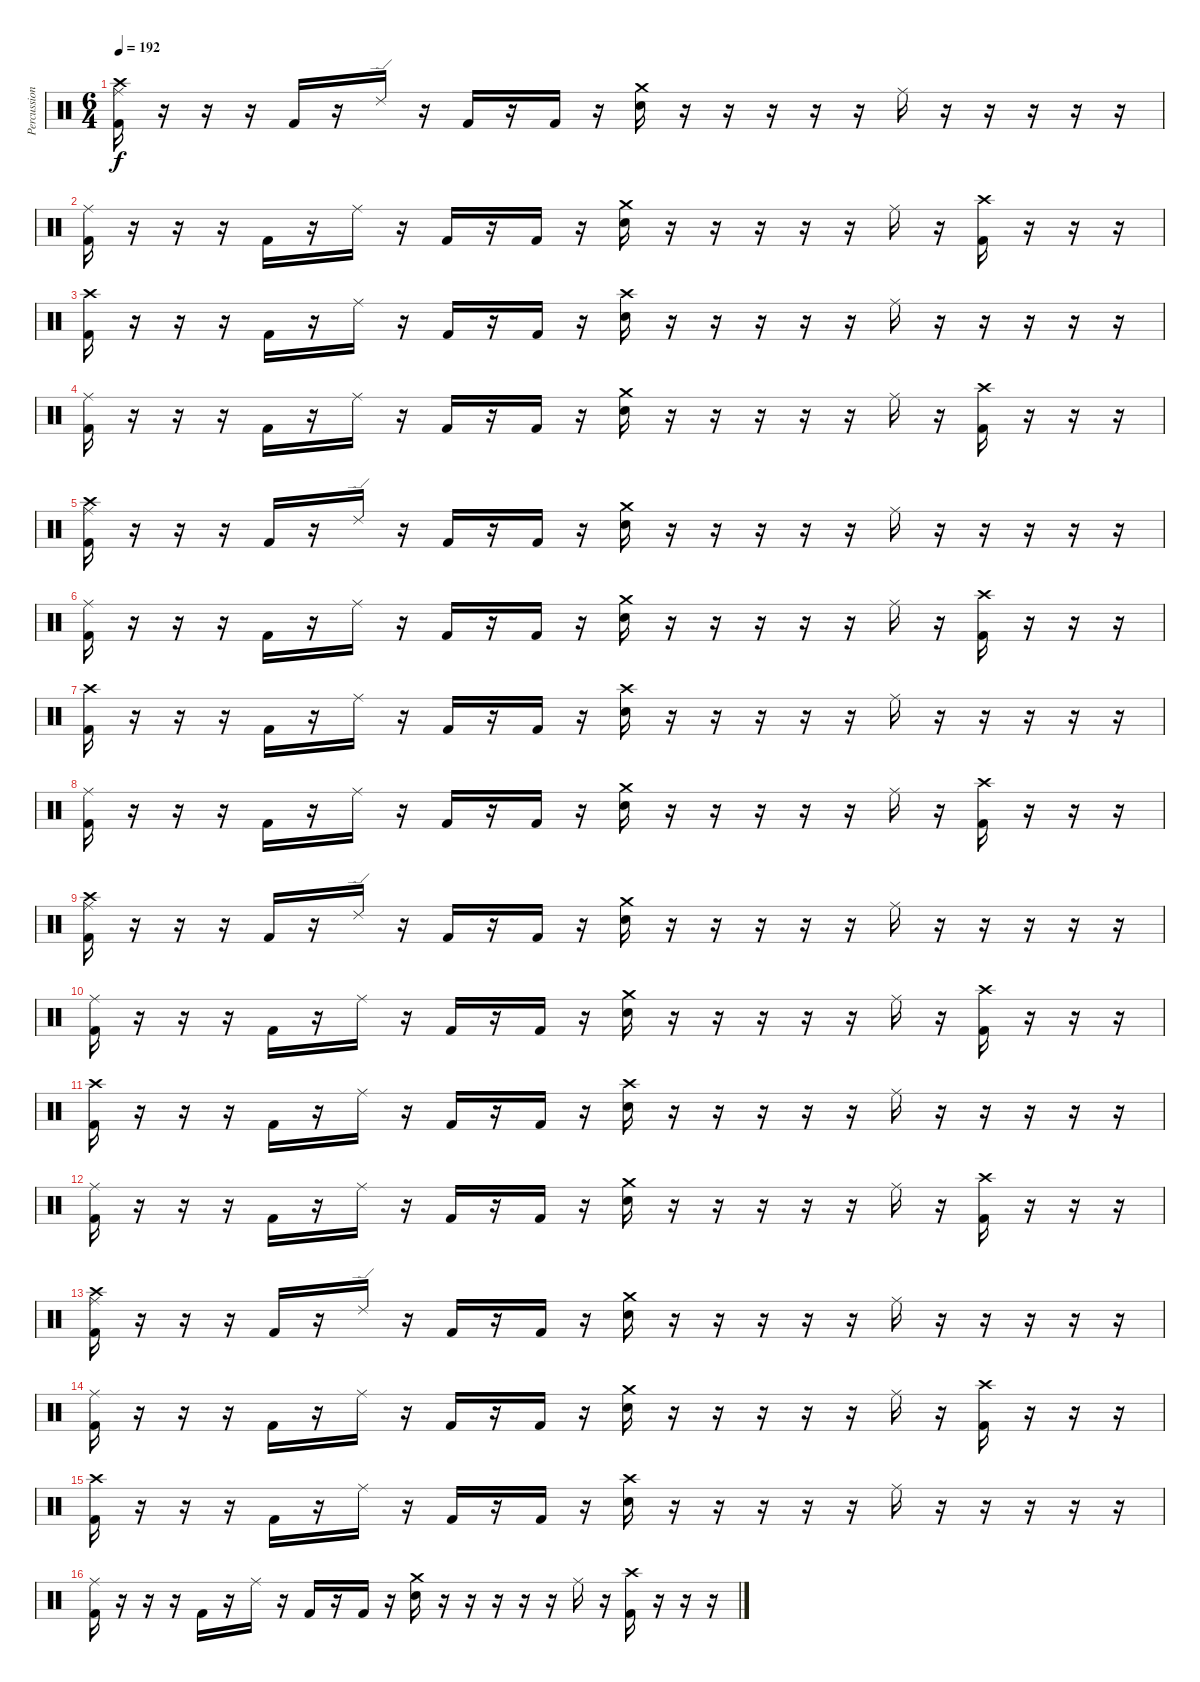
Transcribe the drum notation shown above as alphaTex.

\track ("Percussion" "Percussion") {instrument percussion}
\staff {score}
\articulation defaults
\ts (6 4)
\tempo 192
\clef neutral
\ks c
("Crash high (hit)" "Ride (middle)" "Kick (hit) 2").16{dy f} r.16 r.16 r.16 "Kick (hit) 2".16 r.16 "Ride (edge) 2".16 r.16 "Kick (hit) 2".16 r.16 "Kick (hit) 2".16 r.16 ("Crash medium (hit)" "Snare (hit) 2").16 r.16 r.16 r.16 r.16 r.16 "Ride (middle)".16 r.16 r.16 r.16 r.16 r.16 |
("Ride (middle)" "Kick (hit) 2").16 r.16 r.16 r.16 "Kick (hit) 2".16 r.16 "Ride (middle)".16 r.16 "Kick (hit) 2".16 r.16 "Kick (hit) 2".16 r.16 ("Crash medium (hit)" "Snare (hit) 2").16 r.16 r.16 r.16 r.16 r.16 "Ride (middle)".16 r.16 ("Crash high (hit)" "Kick (hit) 2").16 r.16 r.16 r.16 |
("Crash high (hit)" "Kick (hit) 2").16 r.16 r.16 r.16 "Kick (hit) 2".16 r.16 "Ride (middle)".16 r.16 "Kick (hit) 2".16 r.16 "Kick (hit) 2".16 r.16 ("Crash high (hit)" "Snare (hit) 2").16 r.16 r.16 r.16 r.16 r.16 "Ride (middle)".16 r.16 r.16 r.16 r.16 r.16 |
("Ride (middle)" "Kick (hit) 2").16 r.16 r.16 r.16 "Kick (hit) 2".16 r.16 "Ride (middle)".16 r.16 "Kick (hit) 2".16 r.16 "Kick (hit) 2".16 r.16 ("Crash medium (hit)" "Snare (hit) 2").16 r.16 r.16 r.16 r.16 r.16 "Ride (middle)".16 r.16 ("Crash high (hit)" "Kick (hit) 2").16 r.16 r.16 r.16 |
("Crash high (hit)" "Ride (middle)" "Kick (hit) 2").16 r.16 r.16 r.16 "Kick (hit) 2".16 r.16 "Ride (edge) 2".16 r.16 "Kick (hit) 2".16 r.16 "Kick (hit) 2".16 r.16 ("Crash medium (hit)" "Snare (hit) 2").16 r.16 r.16 r.16 r.16 r.16 "Ride (middle)".16 r.16 r.16 r.16 r.16 r.16 |
("Ride (middle)" "Kick (hit) 2").16 r.16 r.16 r.16 "Kick (hit) 2".16 r.16 "Ride (middle)".16 r.16 "Kick (hit) 2".16 r.16 "Kick (hit) 2".16 r.16 ("Crash medium (hit)" "Snare (hit) 2").16 r.16 r.16 r.16 r.16 r.16 "Ride (middle)".16 r.16 ("Crash high (hit)" "Kick (hit) 2").16 r.16 r.16 r.16 |
("Crash high (hit)" "Kick (hit) 2").16 r.16 r.16 r.16 "Kick (hit) 2".16 r.16 "Ride (middle)".16 r.16 "Kick (hit) 2".16 r.16 "Kick (hit) 2".16 r.16 ("Crash high (hit)" "Snare (hit) 2").16 r.16 r.16 r.16 r.16 r.16 "Ride (middle)".16 r.16 r.16 r.16 r.16 r.16 |
("Ride (middle)" "Kick (hit) 2").16 r.16 r.16 r.16 "Kick (hit) 2".16 r.16 "Ride (middle)".16 r.16 "Kick (hit) 2".16 r.16 "Kick (hit) 2".16 r.16 ("Crash medium (hit)" "Snare (hit) 2").16 r.16 r.16 r.16 r.16 r.16 "Ride (middle)".16 r.16 ("Crash high (hit)" "Kick (hit) 2").16 r.16 r.16 r.16 |
("Crash high (hit)" "Ride (middle)" "Kick (hit) 2").16 r.16 r.16 r.16 "Kick (hit) 2".16 r.16 "Ride (edge) 2".16 r.16 "Kick (hit) 2".16 r.16 "Kick (hit) 2".16 r.16 ("Crash medium (hit)" "Snare (hit) 2").16 r.16 r.16 r.16 r.16 r.16 "Ride (middle)".16 r.16 r.16 r.16 r.16 r.16 |
("Ride (middle)" "Kick (hit) 2").16 r.16 r.16 r.16 "Kick (hit) 2".16 r.16 "Ride (middle)".16 r.16 "Kick (hit) 2".16 r.16 "Kick (hit) 2".16 r.16 ("Crash medium (hit)" "Snare (hit) 2").16 r.16 r.16 r.16 r.16 r.16 "Ride (middle)".16 r.16 ("Crash high (hit)" "Kick (hit) 2").16 r.16 r.16 r.16 |
("Crash high (hit)" "Kick (hit) 2").16 r.16 r.16 r.16 "Kick (hit) 2".16 r.16 "Ride (middle)".16 r.16 "Kick (hit) 2".16 r.16 "Kick (hit) 2".16 r.16 ("Crash high (hit)" "Snare (hit) 2").16 r.16 r.16 r.16 r.16 r.16 "Ride (middle)".16 r.16 r.16 r.16 r.16 r.16 |
("Ride (middle)" "Kick (hit) 2").16 r.16 r.16 r.16 "Kick (hit) 2".16 r.16 "Ride (middle)".16 r.16 "Kick (hit) 2".16 r.16 "Kick (hit) 2".16 r.16 ("Crash medium (hit)" "Snare (hit) 2").16 r.16 r.16 r.16 r.16 r.16 "Ride (middle)".16 r.16 ("Crash high (hit)" "Kick (hit) 2").16 r.16 r.16 r.16 |
("Crash high (hit)" "Ride (middle)" "Kick (hit) 2").16 r.16 r.16 r.16 "Kick (hit) 2".16 r.16 "Ride (edge) 2".16 r.16 "Kick (hit) 2".16 r.16 "Kick (hit) 2".16 r.16 ("Crash medium (hit)" "Snare (hit) 2").16 r.16 r.16 r.16 r.16 r.16 "Ride (middle)".16 r.16 r.16 r.16 r.16 r.16 |
("Ride (middle)" "Kick (hit) 2").16 r.16 r.16 r.16 "Kick (hit) 2".16 r.16 "Ride (middle)".16 r.16 "Kick (hit) 2".16 r.16 "Kick (hit) 2".16 r.16 ("Crash medium (hit)" "Snare (hit) 2").16 r.16 r.16 r.16 r.16 r.16 "Ride (middle)".16 r.16 ("Crash high (hit)" "Kick (hit) 2").16 r.16 r.16 r.16 |
("Crash high (hit)" "Kick (hit) 2").16 r.16 r.16 r.16 "Kick (hit) 2".16 r.16 "Ride (middle)".16 r.16 "Kick (hit) 2".16 r.16 "Kick (hit) 2".16 r.16 ("Crash high (hit)" "Snare (hit) 2").16 r.16 r.16 r.16 r.16 r.16 "Ride (middle)".16 r.16 r.16 r.16 r.16 r.16 |
("Ride (middle)" "Kick (hit) 2").16 r.16 r.16 r.16 "Kick (hit) 2".16 r.16 "Ride (middle)".16 r.16 "Kick (hit) 2".16 r.16 "Kick (hit) 2".16 r.16 ("Crash medium (hit)" "Snare (hit) 2").16 r.16 r.16 r.16 r.16 r.16 "Ride (middle)".16 r.16 ("Crash high (hit)" "Kick (hit) 2").16 r.16 r.16 r.16
